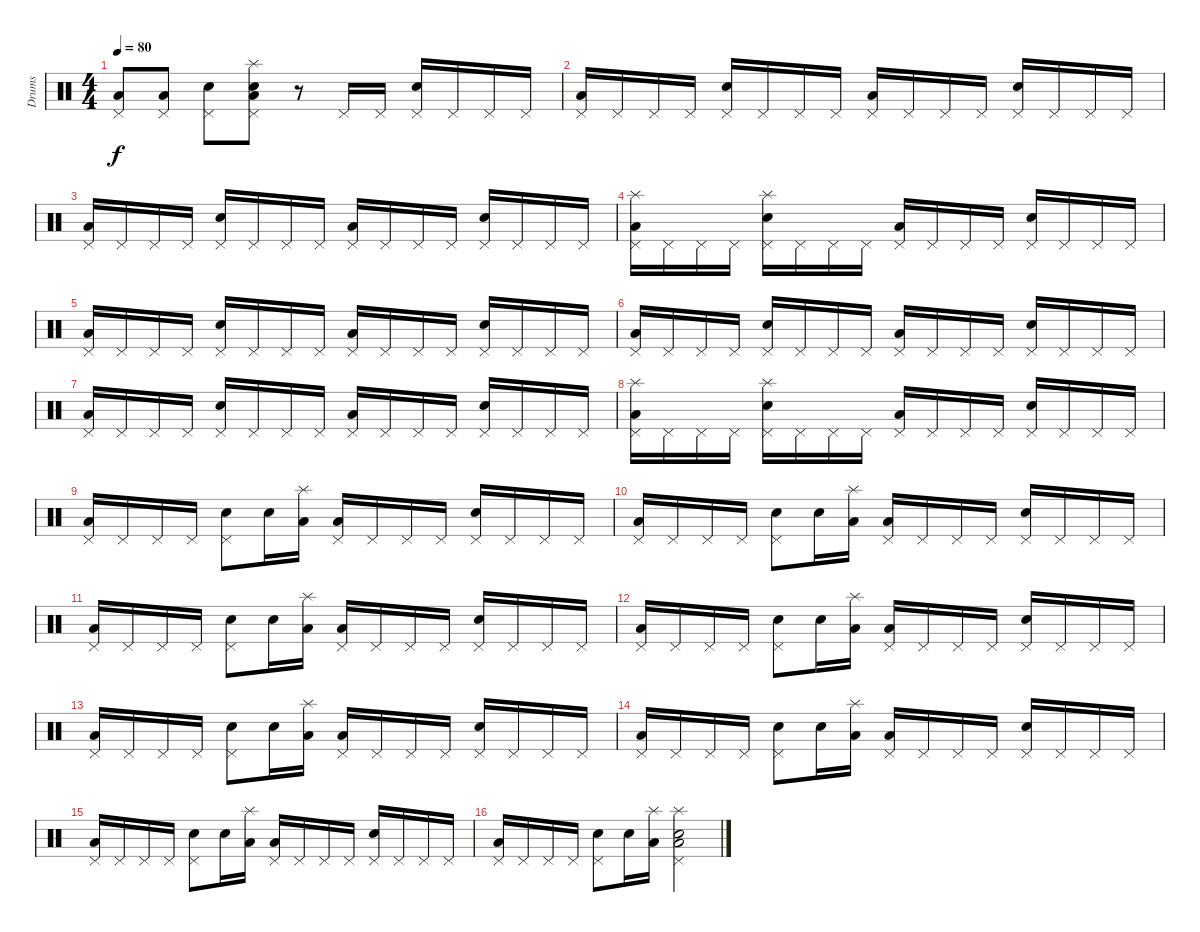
\track ("Drums" "Drums") {instrument percussion}
\staff {score}
\articulation defaults
\ts (4 4)
\tempo 80
\clef neutral
\ks c
("Low Floor Tom (hit)" "Pedal Hi-Hat (hit)").8{dy f} ("Low Floor Tom (hit)" "Pedal Hi-Hat (hit)").8 ("Electric Snare (hit)" "Pedal Hi-Hat (hit)").8 ("Electric Snare (hit)" "Low Floor Tom (hit)" "Pedal Hi-Hat (hit)" "Splash (hit)").8 r.8 "Pedal Hi-Hat (hit)".16 "Pedal Hi-Hat (hit)".16 ("Electric Snare (hit)" "Pedal Hi-Hat (hit)").16 "Pedal Hi-Hat (hit)".16 "Pedal Hi-Hat (hit)".16 "Pedal Hi-Hat (hit)".16 |
("Low Floor Tom (hit)" "Pedal Hi-Hat (hit)").16 "Pedal Hi-Hat (hit)".16 "Pedal Hi-Hat (hit)".16 "Pedal Hi-Hat (hit)".16 ("Electric Snare (hit)" "Pedal Hi-Hat (hit)").16 "Pedal Hi-Hat (hit)".16 "Pedal Hi-Hat (hit)".16 "Pedal Hi-Hat (hit)".16 ("Low Floor Tom (hit)" "Pedal Hi-Hat (hit)").16 "Pedal Hi-Hat (hit)".16 "Pedal Hi-Hat (hit)".16 "Pedal Hi-Hat (hit)".16 ("Electric Snare (hit)" "Pedal Hi-Hat (hit)").16 "Pedal Hi-Hat (hit)".16 "Pedal Hi-Hat (hit)".16 "Pedal Hi-Hat (hit)".16 |
("Low Floor Tom (hit)" "Pedal Hi-Hat (hit)").16 "Pedal Hi-Hat (hit)".16 "Pedal Hi-Hat (hit)".16 "Pedal Hi-Hat (hit)".16 ("Electric Snare (hit)" "Pedal Hi-Hat (hit)").16 "Pedal Hi-Hat (hit)".16 "Pedal Hi-Hat (hit)".16 "Pedal Hi-Hat (hit)".16 ("Low Floor Tom (hit)" "Pedal Hi-Hat (hit)").16 "Pedal Hi-Hat (hit)".16 "Pedal Hi-Hat (hit)".16 "Pedal Hi-Hat (hit)".16 ("Electric Snare (hit)" "Pedal Hi-Hat (hit)").16 "Pedal Hi-Hat (hit)".16 "Pedal Hi-Hat (hit)".16 "Pedal Hi-Hat (hit)".16 |
("Low Floor Tom (hit)" "Pedal Hi-Hat (hit)" "Splash (hit)").16 "Pedal Hi-Hat (hit)".16 "Pedal Hi-Hat (hit)".16 "Pedal Hi-Hat (hit)".16 ("Electric Snare (hit)" "Pedal Hi-Hat (hit)" "Splash (hit)").16 "Pedal Hi-Hat (hit)".16 "Pedal Hi-Hat (hit)".16 "Pedal Hi-Hat (hit)".16 ("Low Floor Tom (hit)" "Pedal Hi-Hat (hit)").16 "Pedal Hi-Hat (hit)".16 "Pedal Hi-Hat (hit)".16 "Pedal Hi-Hat (hit)".16 ("Electric Snare (hit)" "Pedal Hi-Hat (hit)").16 "Pedal Hi-Hat (hit)".16 "Pedal Hi-Hat (hit)".16 "Pedal Hi-Hat (hit)".16 |
("Low Floor Tom (hit)" "Pedal Hi-Hat (hit)").16 "Pedal Hi-Hat (hit)".16 "Pedal Hi-Hat (hit)".16 "Pedal Hi-Hat (hit)".16 ("Electric Snare (hit)" "Pedal Hi-Hat (hit)").16 "Pedal Hi-Hat (hit)".16 "Pedal Hi-Hat (hit)".16 "Pedal Hi-Hat (hit)".16 ("Low Floor Tom (hit)" "Pedal Hi-Hat (hit)").16 "Pedal Hi-Hat (hit)".16 "Pedal Hi-Hat (hit)".16 "Pedal Hi-Hat (hit)".16 ("Electric Snare (hit)" "Pedal Hi-Hat (hit)").16 "Pedal Hi-Hat (hit)".16 "Pedal Hi-Hat (hit)".16 "Pedal Hi-Hat (hit)".16 |
("Low Floor Tom (hit)" "Pedal Hi-Hat (hit)").16 "Pedal Hi-Hat (hit)".16 "Pedal Hi-Hat (hit)".16 "Pedal Hi-Hat (hit)".16 ("Electric Snare (hit)" "Pedal Hi-Hat (hit)").16 "Pedal Hi-Hat (hit)".16 "Pedal Hi-Hat (hit)".16 "Pedal Hi-Hat (hit)".16 ("Low Floor Tom (hit)" "Pedal Hi-Hat (hit)").16 "Pedal Hi-Hat (hit)".16 "Pedal Hi-Hat (hit)".16 "Pedal Hi-Hat (hit)".16 ("Electric Snare (hit)" "Pedal Hi-Hat (hit)").16 "Pedal Hi-Hat (hit)".16 "Pedal Hi-Hat (hit)".16 "Pedal Hi-Hat (hit)".16 |
("Low Floor Tom (hit)" "Pedal Hi-Hat (hit)").16 "Pedal Hi-Hat (hit)".16 "Pedal Hi-Hat (hit)".16 "Pedal Hi-Hat (hit)".16 ("Electric Snare (hit)" "Pedal Hi-Hat (hit)").16 "Pedal Hi-Hat (hit)".16 "Pedal Hi-Hat (hit)".16 "Pedal Hi-Hat (hit)".16 ("Low Floor Tom (hit)" "Pedal Hi-Hat (hit)").16 "Pedal Hi-Hat (hit)".16 "Pedal Hi-Hat (hit)".16 "Pedal Hi-Hat (hit)".16 ("Electric Snare (hit)" "Pedal Hi-Hat (hit)").16 "Pedal Hi-Hat (hit)".16 "Pedal Hi-Hat (hit)".16 "Pedal Hi-Hat (hit)".16 |
("Low Floor Tom (hit)" "Pedal Hi-Hat (hit)" "Splash (hit)").16 "Pedal Hi-Hat (hit)".16 "Pedal Hi-Hat (hit)".16 "Pedal Hi-Hat (hit)".16 ("Electric Snare (hit)" "Pedal Hi-Hat (hit)" "Splash (hit)").16 "Pedal Hi-Hat (hit)".16 "Pedal Hi-Hat (hit)".16 "Pedal Hi-Hat (hit)".16 ("Low Floor Tom (hit)" "Pedal Hi-Hat (hit)").16 "Pedal Hi-Hat (hit)".16 "Pedal Hi-Hat (hit)".16 "Pedal Hi-Hat (hit)".16 ("Electric Snare (hit)" "Pedal Hi-Hat (hit)").16 "Pedal Hi-Hat (hit)".16 "Pedal Hi-Hat (hit)".16 "Pedal Hi-Hat (hit)".16 |
("Low Floor Tom (hit)" "Pedal Hi-Hat (hit)").16 "Pedal Hi-Hat (hit)".16 "Pedal Hi-Hat (hit)".16 "Pedal Hi-Hat (hit)".16 ("Electric Snare (hit)" "Pedal Hi-Hat (hit)").8 "Electric Snare (hit)".16 ("Low Floor Tom (hit)" "Splash (hit)").16 ("Low Floor Tom (hit)" "Pedal Hi-Hat (hit)").16 "Pedal Hi-Hat (hit)".16 "Pedal Hi-Hat (hit)".16 "Pedal Hi-Hat (hit)".16 ("Electric Snare (hit)" "Pedal Hi-Hat (hit)").16 "Pedal Hi-Hat (hit)".16 "Pedal Hi-Hat (hit)".16 "Pedal Hi-Hat (hit)".16 |
("Low Floor Tom (hit)" "Pedal Hi-Hat (hit)").16 "Pedal Hi-Hat (hit)".16 "Pedal Hi-Hat (hit)".16 "Pedal Hi-Hat (hit)".16 ("Electric Snare (hit)" "Pedal Hi-Hat (hit)").8 "Electric Snare (hit)".16 ("Low Floor Tom (hit)" "Splash (hit)").16 ("Low Floor Tom (hit)" "Pedal Hi-Hat (hit)").16 "Pedal Hi-Hat (hit)".16 "Pedal Hi-Hat (hit)".16 "Pedal Hi-Hat (hit)".16 ("Electric Snare (hit)" "Pedal Hi-Hat (hit)").16 "Pedal Hi-Hat (hit)".16 "Pedal Hi-Hat (hit)".16 "Pedal Hi-Hat (hit)".16 |
("Low Floor Tom (hit)" "Pedal Hi-Hat (hit)").16 "Pedal Hi-Hat (hit)".16 "Pedal Hi-Hat (hit)".16 "Pedal Hi-Hat (hit)".16 ("Electric Snare (hit)" "Pedal Hi-Hat (hit)").8 "Electric Snare (hit)".16 ("Low Floor Tom (hit)" "Splash (hit)").16 ("Low Floor Tom (hit)" "Pedal Hi-Hat (hit)").16 "Pedal Hi-Hat (hit)".16 "Pedal Hi-Hat (hit)".16 "Pedal Hi-Hat (hit)".16 ("Electric Snare (hit)" "Pedal Hi-Hat (hit)").16 "Pedal Hi-Hat (hit)".16 "Pedal Hi-Hat (hit)".16 "Pedal Hi-Hat (hit)".16 |
("Low Floor Tom (hit)" "Pedal Hi-Hat (hit)").16 "Pedal Hi-Hat (hit)".16 "Pedal Hi-Hat (hit)".16 "Pedal Hi-Hat (hit)".16 ("Electric Snare (hit)" "Pedal Hi-Hat (hit)").8 "Electric Snare (hit)".16 ("Low Floor Tom (hit)" "Splash (hit)").16 ("Low Floor Tom (hit)" "Pedal Hi-Hat (hit)").16 "Pedal Hi-Hat (hit)".16 "Pedal Hi-Hat (hit)".16 "Pedal Hi-Hat (hit)".16 ("Electric Snare (hit)" "Pedal Hi-Hat (hit)").16 "Pedal Hi-Hat (hit)".16 "Pedal Hi-Hat (hit)".16 "Pedal Hi-Hat (hit)".16 |
("Low Floor Tom (hit)" "Pedal Hi-Hat (hit)").16 "Pedal Hi-Hat (hit)".16 "Pedal Hi-Hat (hit)".16 "Pedal Hi-Hat (hit)".16 ("Electric Snare (hit)" "Pedal Hi-Hat (hit)").8 "Electric Snare (hit)".16 ("Low Floor Tom (hit)" "Splash (hit)").16 ("Low Floor Tom (hit)" "Pedal Hi-Hat (hit)").16 "Pedal Hi-Hat (hit)".16 "Pedal Hi-Hat (hit)".16 "Pedal Hi-Hat (hit)".16 ("Electric Snare (hit)" "Pedal Hi-Hat (hit)").16 "Pedal Hi-Hat (hit)".16 "Pedal Hi-Hat (hit)".16 "Pedal Hi-Hat (hit)".16 |
("Low Floor Tom (hit)" "Pedal Hi-Hat (hit)").16 "Pedal Hi-Hat (hit)".16 "Pedal Hi-Hat (hit)".16 "Pedal Hi-Hat (hit)".16 ("Electric Snare (hit)" "Pedal Hi-Hat (hit)").8 "Electric Snare (hit)".16 ("Low Floor Tom (hit)" "Splash (hit)").16 ("Low Floor Tom (hit)" "Pedal Hi-Hat (hit)").16 "Pedal Hi-Hat (hit)".16 "Pedal Hi-Hat (hit)".16 "Pedal Hi-Hat (hit)".16 ("Electric Snare (hit)" "Pedal Hi-Hat (hit)").16 "Pedal Hi-Hat (hit)".16 "Pedal Hi-Hat (hit)".16 "Pedal Hi-Hat (hit)".16 |
("Low Floor Tom (hit)" "Pedal Hi-Hat (hit)").16 "Pedal Hi-Hat (hit)".16 "Pedal Hi-Hat (hit)".16 "Pedal Hi-Hat (hit)".16 ("Electric Snare (hit)" "Pedal Hi-Hat (hit)").8 "Electric Snare (hit)".16 ("Low Floor Tom (hit)" "Splash (hit)").16 ("Low Floor Tom (hit)" "Pedal Hi-Hat (hit)").16 "Pedal Hi-Hat (hit)".16 "Pedal Hi-Hat (hit)".16 "Pedal Hi-Hat (hit)".16 ("Electric Snare (hit)" "Pedal Hi-Hat (hit)").16 "Pedal Hi-Hat (hit)".16 "Pedal Hi-Hat (hit)".16 "Pedal Hi-Hat (hit)".16 |
("Low Floor Tom (hit)" "Pedal Hi-Hat (hit)").16 "Pedal Hi-Hat (hit)".16 "Pedal Hi-Hat (hit)".16 "Pedal Hi-Hat (hit)".16 ("Electric Snare (hit)" "Pedal Hi-Hat (hit)").8 "Electric Snare (hit)".16 ("Low Floor Tom (hit)" "Splash (hit)").16 ("Electric Snare (hit)" "Low Floor Tom (hit)" "Pedal Hi-Hat (hit)" "Splash (hit)").2
